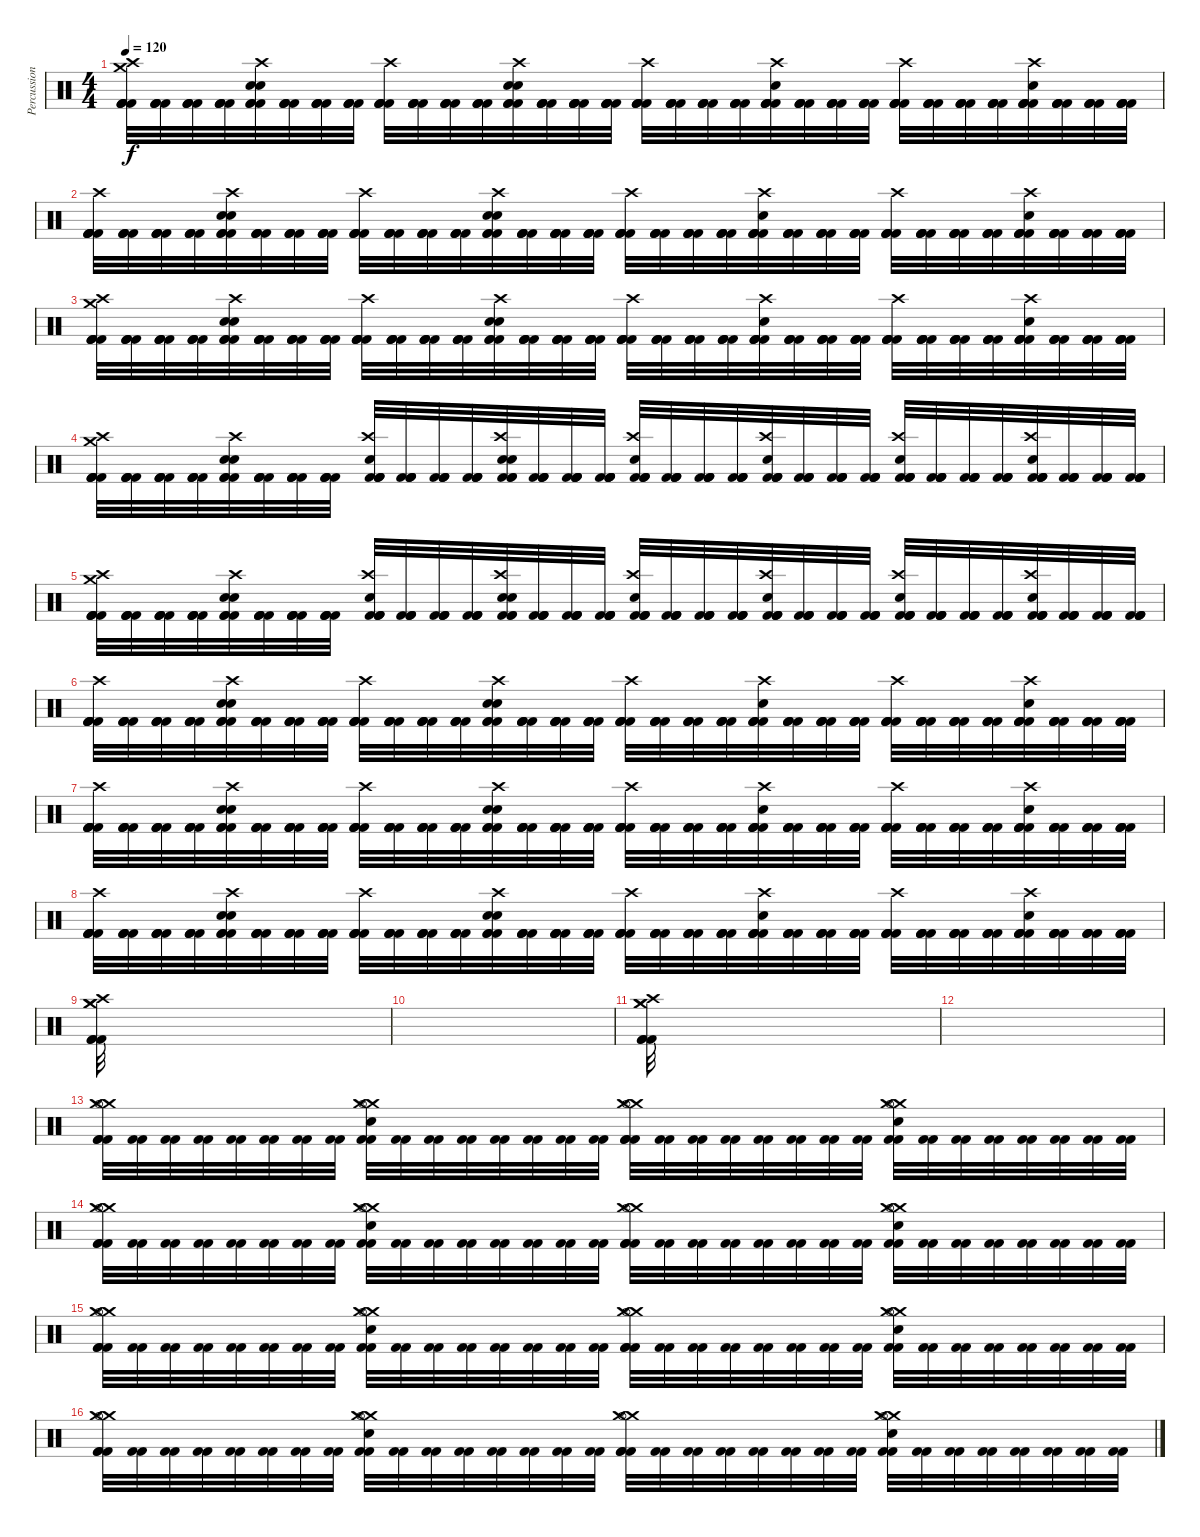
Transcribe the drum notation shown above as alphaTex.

\track ("Percussion" "Percussion") {instrument percussion}
\staff {score}
\articulation defaults
\ts (4 4)
\tempo 120
\clef neutral
\ks c
("Crash medium (hit)" "Kick (hit) 2" "Crash high (hit)" "Kick (hit) 2" "Kick (hit) 2" "Kick (hit) 2").32{dy f} ("Kick (hit) 2" "Kick (hit) 2" "Kick (hit) 2" "Kick (hit) 2").32 ("Kick (hit) 2" "Kick (hit) 2" "Kick (hit) 2" "Kick (hit) 2").32 ("Kick (hit) 2" "Kick (hit) 2" "Kick (hit) 2" "Kick (hit) 2").32 ("Snare (hit) 2" "Electric Snare (hit)" "Crash high (hit)" "Kick (hit) 2" "Kick (hit) 2" "Kick (hit) 2").32 ("Kick (hit) 2" "Kick (hit) 2" "Kick (hit) 2" "Kick (hit) 2").32 ("Kick (hit) 2" "Kick (hit) 2" "Kick (hit) 2" "Kick (hit) 2").32 ("Kick (hit) 2" "Kick (hit) 2" "Kick (hit) 2" "Kick (hit) 2").32 ("Kick (hit) 2" "Crash high (hit)" "Kick (hit) 2" "Kick (hit) 2" "Kick (hit) 2").32 ("Kick (hit) 2" "Kick (hit) 2" "Kick (hit) 2" "Kick (hit) 2").32 ("Kick (hit) 2" "Kick (hit) 2" "Kick (hit) 2" "Kick (hit) 2").32 ("Kick (hit) 2" "Kick (hit) 2" "Kick (hit) 2" "Kick (hit) 2").32 ("Snare (hit) 2" "Electric Snare (hit)" "Crash high (hit)" "Kick (hit) 2" "Kick (hit) 2" "Kick (hit) 2").32 ("Kick (hit) 2" "Kick (hit) 2" "Kick (hit) 2" "Kick (hit) 2").32 ("Kick (hit) 2" "Kick (hit) 2" "Kick (hit) 2" "Kick (hit) 2" "Kick (hit) 2").32 ("Kick (hit) 2" "Kick (hit) 2" "Kick (hit) 2" "Kick (hit) 2" "Kick (hit) 2").32 ("Kick (hit) 2" "Crash high (hit)" "Kick (hit) 2" "Kick (hit) 2" "Kick (hit) 2").32 ("Kick (hit) 2" "Kick (hit) 2" "Kick (hit) 2" "Kick (hit) 2").32 ("Kick (hit) 2" "Kick (hit) 2" "Kick (hit) 2" "Kick (hit) 2").32 ("Kick (hit) 2" "Kick (hit) 2" "Kick (hit) 2" "Kick (hit) 2").32 ("Kick (hit) 2" "Electric Snare (hit)" "Crash high (hit)" "Kick (hit) 2" "Kick (hit) 2" "Kick (hit) 2").32 ("Kick (hit) 2" "Kick (hit) 2" "Kick (hit) 2" "Kick (hit) 2").32 ("Kick (hit) 2" "Kick (hit) 2" "Kick (hit) 2" "Kick (hit) 2").32 ("Kick (hit) 2" "Kick (hit) 2" "Kick (hit) 2" "Kick (hit) 2").32 ("Kick (hit) 2" "Crash high (hit)" "Kick (hit) 2" "Kick (hit) 2" "Kick (hit) 2").32 ("Kick (hit) 2" "Kick (hit) 2" "Kick (hit) 2" "Kick (hit) 2").32 ("Kick (hit) 2" "Kick (hit) 2" "Kick (hit) 2" "Kick (hit) 2").32 ("Kick (hit) 2" "Kick (hit) 2" "Kick (hit) 2" "Kick (hit) 2").32 ("Kick (hit) 2" "Electric Snare (hit)" "Crash high (hit)" "Kick (hit) 2" "Kick (hit) 2" "Kick (hit) 2").32 ("Kick (hit) 2" "Kick (hit) 2" "Kick (hit) 2" "Kick (hit) 2").32 ("Kick (hit) 2" "Kick (hit) 2" "Kick (hit) 2" "Kick (hit) 2").32 ("Kick (hit) 2" "Kick (hit) 2" "Kick (hit) 2" "Kick (hit) 2").32 |
("Kick (hit) 2" "Kick (hit) 2" "Crash high (hit)" "Kick (hit) 2" "Kick (hit) 2" "Kick (hit) 2").32 ("Kick (hit) 2" "Kick (hit) 2" "Kick (hit) 2" "Kick (hit) 2").32 ("Kick (hit) 2" "Kick (hit) 2" "Kick (hit) 2" "Kick (hit) 2").32 ("Kick (hit) 2" "Kick (hit) 2" "Kick (hit) 2" "Kick (hit) 2").32 ("Snare (hit) 2" "Electric Snare (hit)" "Crash high (hit)" "Kick (hit) 2" "Kick (hit) 2" "Kick (hit) 2").32 ("Kick (hit) 2" "Kick (hit) 2" "Kick (hit) 2" "Kick (hit) 2").32 ("Kick (hit) 2" "Kick (hit) 2" "Kick (hit) 2" "Kick (hit) 2").32 ("Kick (hit) 2" "Kick (hit) 2" "Kick (hit) 2" "Kick (hit) 2").32 ("Kick (hit) 2" "Crash high (hit)" "Kick (hit) 2" "Kick (hit) 2" "Kick (hit) 2").32 ("Kick (hit) 2" "Kick (hit) 2" "Kick (hit) 2" "Kick (hit) 2").32 ("Kick (hit) 2" "Kick (hit) 2" "Kick (hit) 2" "Kick (hit) 2").32 ("Kick (hit) 2" "Kick (hit) 2" "Kick (hit) 2" "Kick (hit) 2").32 ("Snare (hit) 2" "Electric Snare (hit)" "Crash high (hit)" "Kick (hit) 2" "Kick (hit) 2" "Kick (hit) 2").32 ("Kick (hit) 2" "Kick (hit) 2" "Kick (hit) 2" "Kick (hit) 2").32 ("Kick (hit) 2" "Kick (hit) 2" "Kick (hit) 2" "Kick (hit) 2" "Kick (hit) 2").32 ("Kick (hit) 2" "Kick (hit) 2" "Kick (hit) 2" "Kick (hit) 2" "Kick (hit) 2").32 ("Kick (hit) 2" "Crash high (hit)" "Kick (hit) 2" "Kick (hit) 2" "Kick (hit) 2").32 ("Kick (hit) 2" "Kick (hit) 2" "Kick (hit) 2" "Kick (hit) 2").32 ("Kick (hit) 2" "Kick (hit) 2" "Kick (hit) 2" "Kick (hit) 2").32 ("Kick (hit) 2" "Kick (hit) 2" "Kick (hit) 2" "Kick (hit) 2").32 ("Kick (hit) 2" "Electric Snare (hit)" "Crash high (hit)" "Kick (hit) 2" "Kick (hit) 2" "Kick (hit) 2").32 ("Kick (hit) 2" "Kick (hit) 2" "Kick (hit) 2" "Kick (hit) 2").32 ("Kick (hit) 2" "Kick (hit) 2" "Kick (hit) 2" "Kick (hit) 2").32 ("Kick (hit) 2" "Kick (hit) 2" "Kick (hit) 2" "Kick (hit) 2").32 ("Kick (hit) 2" "Crash high (hit)" "Kick (hit) 2" "Kick (hit) 2" "Kick (hit) 2").32 ("Kick (hit) 2" "Kick (hit) 2" "Kick (hit) 2" "Kick (hit) 2").32 ("Kick (hit) 2" "Kick (hit) 2" "Kick (hit) 2" "Kick (hit) 2").32 ("Kick (hit) 2" "Kick (hit) 2" "Kick (hit) 2" "Kick (hit) 2").32 ("Kick (hit) 2" "Electric Snare (hit)" "Crash high (hit)" "Kick (hit) 2" "Kick (hit) 2" "Kick (hit) 2").32 ("Kick (hit) 2" "Kick (hit) 2" "Kick (hit) 2" "Kick (hit) 2").32 ("Kick (hit) 2" "Kick (hit) 2" "Kick (hit) 2" "Kick (hit) 2").32 ("Kick (hit) 2" "Kick (hit) 2" "Kick (hit) 2" "Kick (hit) 2").32 |
("Crash medium (hit)" "Kick (hit) 2" "Crash high (hit)" "Kick (hit) 2" "Kick (hit) 2" "Kick (hit) 2").32 ("Kick (hit) 2" "Kick (hit) 2" "Kick (hit) 2" "Kick (hit) 2").32 ("Kick (hit) 2" "Kick (hit) 2" "Kick (hit) 2" "Kick (hit) 2").32 ("Kick (hit) 2" "Kick (hit) 2" "Kick (hit) 2" "Kick (hit) 2").32 ("Snare (hit) 2" "Electric Snare (hit)" "Crash high (hit)" "Kick (hit) 2" "Kick (hit) 2" "Kick (hit) 2").32 ("Kick (hit) 2" "Kick (hit) 2" "Kick (hit) 2" "Kick (hit) 2").32 ("Kick (hit) 2" "Kick (hit) 2" "Kick (hit) 2" "Kick (hit) 2").32 ("Kick (hit) 2" "Kick (hit) 2" "Kick (hit) 2" "Kick (hit) 2").32 ("Kick (hit) 2" "Crash high (hit)" "Kick (hit) 2" "Kick (hit) 2" "Kick (hit) 2").32 ("Kick (hit) 2" "Kick (hit) 2" "Kick (hit) 2" "Kick (hit) 2").32 ("Kick (hit) 2" "Kick (hit) 2" "Kick (hit) 2" "Kick (hit) 2").32 ("Kick (hit) 2" "Kick (hit) 2" "Kick (hit) 2" "Kick (hit) 2").32 ("Snare (hit) 2" "Electric Snare (hit)" "Crash high (hit)" "Kick (hit) 2" "Kick (hit) 2" "Kick (hit) 2").32 ("Kick (hit) 2" "Kick (hit) 2" "Kick (hit) 2" "Kick (hit) 2").32 ("Kick (hit) 2" "Kick (hit) 2" "Kick (hit) 2" "Kick (hit) 2" "Kick (hit) 2").32 ("Kick (hit) 2" "Kick (hit) 2" "Kick (hit) 2" "Kick (hit) 2" "Kick (hit) 2").32 ("Kick (hit) 2" "Crash high (hit)" "Kick (hit) 2" "Kick (hit) 2" "Kick (hit) 2").32 ("Kick (hit) 2" "Kick (hit) 2" "Kick (hit) 2" "Kick (hit) 2").32 ("Kick (hit) 2" "Kick (hit) 2" "Kick (hit) 2" "Kick (hit) 2").32 ("Kick (hit) 2" "Kick (hit) 2" "Kick (hit) 2" "Kick (hit) 2").32 ("Kick (hit) 2" "Electric Snare (hit)" "Crash high (hit)" "Kick (hit) 2" "Kick (hit) 2" "Kick (hit) 2").32 ("Kick (hit) 2" "Kick (hit) 2" "Kick (hit) 2" "Kick (hit) 2").32 ("Kick (hit) 2" "Kick (hit) 2" "Kick (hit) 2" "Kick (hit) 2").32 ("Kick (hit) 2" "Kick (hit) 2" "Kick (hit) 2" "Kick (hit) 2").32 ("Kick (hit) 2" "Crash high (hit)" "Kick (hit) 2" "Kick (hit) 2" "Kick (hit) 2").32 ("Kick (hit) 2" "Kick (hit) 2" "Kick (hit) 2" "Kick (hit) 2").32 ("Kick (hit) 2" "Kick (hit) 2" "Kick (hit) 2" "Kick (hit) 2").32 ("Kick (hit) 2" "Kick (hit) 2" "Kick (hit) 2" "Kick (hit) 2").32 ("Kick (hit) 2" "Electric Snare (hit)" "Crash high (hit)" "Kick (hit) 2" "Kick (hit) 2" "Kick (hit) 2").32 ("Kick (hit) 2" "Kick (hit) 2" "Kick (hit) 2" "Kick (hit) 2").32 ("Kick (hit) 2" "Kick (hit) 2" "Kick (hit) 2" "Kick (hit) 2").32 ("Kick (hit) 2" "Kick (hit) 2" "Kick (hit) 2" "Kick (hit) 2").32 |
("Crash medium (hit)" "Kick (hit) 2" "Crash high (hit)" "Kick (hit) 2" "Kick (hit) 2" "Kick (hit) 2").32 ("Kick (hit) 2" "Kick (hit) 2" "Kick (hit) 2" "Kick (hit) 2").32 ("Kick (hit) 2" "Kick (hit) 2" "Kick (hit) 2" "Kick (hit) 2").32 ("Kick (hit) 2" "Kick (hit) 2" "Kick (hit) 2" "Kick (hit) 2").32 ("Snare (hit) 2" "Electric Snare (hit)" "Crash high (hit)" "Kick (hit) 2" "Kick (hit) 2" "Kick (hit) 2").32 ("Kick (hit) 2" "Kick (hit) 2" "Kick (hit) 2" "Kick (hit) 2").32 ("Kick (hit) 2" "Kick (hit) 2" "Kick (hit) 2" "Kick (hit) 2").32 ("Kick (hit) 2" "Kick (hit) 2" "Kick (hit) 2" "Kick (hit) 2").32 ("Kick (hit) 2" "Electric Snare (hit)" "Crash high (hit)" "Kick (hit) 2" "Kick (hit) 2" "Kick (hit) 2").32 ("Kick (hit) 2" "Kick (hit) 2" "Kick (hit) 2" "Kick (hit) 2").32 ("Kick (hit) 2" "Kick (hit) 2" "Kick (hit) 2" "Kick (hit) 2").32 ("Kick (hit) 2" "Kick (hit) 2" "Kick (hit) 2" "Kick (hit) 2").32 ("Snare (hit) 2" "Electric Snare (hit)" "Crash high (hit)" "Kick (hit) 2" "Kick (hit) 2" "Kick (hit) 2").32 ("Kick (hit) 2" "Kick (hit) 2" "Kick (hit) 2" "Kick (hit) 2").32 ("Kick (hit) 2" "Kick (hit) 2" "Kick (hit) 2" "Kick (hit) 2" "Kick (hit) 2").32 ("Kick (hit) 2" "Kick (hit) 2" "Kick (hit) 2" "Kick (hit) 2" "Kick (hit) 2").32 ("Kick (hit) 2" "Electric Snare (hit)" "Crash high (hit)" "Kick (hit) 2" "Kick (hit) 2" "Kick (hit) 2").32 ("Kick (hit) 2" "Kick (hit) 2" "Kick (hit) 2" "Kick (hit) 2").32 ("Kick (hit) 2" "Kick (hit) 2" "Kick (hit) 2" "Kick (hit) 2").32 ("Kick (hit) 2" "Kick (hit) 2" "Kick (hit) 2" "Kick (hit) 2").32 ("Kick (hit) 2" "Electric Snare (hit)" "Crash high (hit)" "Kick (hit) 2" "Kick (hit) 2" "Kick (hit) 2").32 ("Kick (hit) 2" "Kick (hit) 2" "Kick (hit) 2" "Kick (hit) 2").32 ("Kick (hit) 2" "Kick (hit) 2" "Kick (hit) 2" "Kick (hit) 2").32 ("Kick (hit) 2" "Kick (hit) 2" "Kick (hit) 2" "Kick (hit) 2").32 ("Kick (hit) 2" "Electric Snare (hit)" "Crash high (hit)" "Kick (hit) 2" "Kick (hit) 2" "Kick (hit) 2").32 ("Kick (hit) 2" "Kick (hit) 2" "Kick (hit) 2" "Kick (hit) 2").32 ("Kick (hit) 2" "Kick (hit) 2" "Kick (hit) 2" "Kick (hit) 2").32 ("Kick (hit) 2" "Kick (hit) 2" "Kick (hit) 2" "Kick (hit) 2").32 ("Kick (hit) 2" "Electric Snare (hit)" "Crash high (hit)" "Kick (hit) 2" "Kick (hit) 2" "Kick (hit) 2").32 ("Kick (hit) 2" "Kick (hit) 2" "Kick (hit) 2" "Kick (hit) 2").32 ("Kick (hit) 2" "Kick (hit) 2" "Kick (hit) 2" "Kick (hit) 2").32 ("Kick (hit) 2" "Kick (hit) 2" "Kick (hit) 2" "Kick (hit) 2").32 |
("Crash medium (hit)" "Kick (hit) 2" "Crash high (hit)" "Kick (hit) 2" "Kick (hit) 2" "Kick (hit) 2").32 ("Kick (hit) 2" "Kick (hit) 2" "Kick (hit) 2" "Kick (hit) 2").32 ("Kick (hit) 2" "Kick (hit) 2" "Kick (hit) 2" "Kick (hit) 2").32 ("Kick (hit) 2" "Kick (hit) 2" "Kick (hit) 2" "Kick (hit) 2").32 ("Snare (hit) 2" "Electric Snare (hit)" "Crash high (hit)" "Kick (hit) 2" "Kick (hit) 2" "Kick (hit) 2").32 ("Kick (hit) 2" "Kick (hit) 2" "Kick (hit) 2" "Kick (hit) 2").32 ("Kick (hit) 2" "Kick (hit) 2" "Kick (hit) 2" "Kick (hit) 2").32 ("Kick (hit) 2" "Kick (hit) 2" "Kick (hit) 2" "Kick (hit) 2").32 ("Kick (hit) 2" "Electric Snare (hit)" "Crash high (hit)" "Kick (hit) 2" "Kick (hit) 2" "Kick (hit) 2").32 ("Kick (hit) 2" "Kick (hit) 2" "Kick (hit) 2" "Kick (hit) 2").32 ("Kick (hit) 2" "Kick (hit) 2" "Kick (hit) 2" "Kick (hit) 2").32 ("Kick (hit) 2" "Kick (hit) 2" "Kick (hit) 2" "Kick (hit) 2").32 ("Snare (hit) 2" "Electric Snare (hit)" "Crash high (hit)" "Kick (hit) 2" "Kick (hit) 2" "Kick (hit) 2").32 ("Kick (hit) 2" "Kick (hit) 2" "Kick (hit) 2" "Kick (hit) 2").32 ("Kick (hit) 2" "Kick (hit) 2" "Kick (hit) 2" "Kick (hit) 2" "Kick (hit) 2").32 ("Kick (hit) 2" "Kick (hit) 2" "Kick (hit) 2" "Kick (hit) 2" "Kick (hit) 2").32 ("Kick (hit) 2" "Electric Snare (hit)" "Crash high (hit)" "Kick (hit) 2" "Kick (hit) 2" "Kick (hit) 2").32 ("Kick (hit) 2" "Kick (hit) 2" "Kick (hit) 2" "Kick (hit) 2").32 ("Kick (hit) 2" "Kick (hit) 2" "Kick (hit) 2" "Kick (hit) 2").32 ("Kick (hit) 2" "Kick (hit) 2" "Kick (hit) 2" "Kick (hit) 2").32 ("Kick (hit) 2" "Electric Snare (hit)" "Crash high (hit)" "Kick (hit) 2" "Kick (hit) 2" "Kick (hit) 2").32 ("Kick (hit) 2" "Kick (hit) 2" "Kick (hit) 2" "Kick (hit) 2").32 ("Kick (hit) 2" "Kick (hit) 2" "Kick (hit) 2" "Kick (hit) 2").32 ("Kick (hit) 2" "Kick (hit) 2" "Kick (hit) 2" "Kick (hit) 2").32 ("Kick (hit) 2" "Electric Snare (hit)" "Crash high (hit)" "Kick (hit) 2" "Kick (hit) 2" "Kick (hit) 2").32 ("Kick (hit) 2" "Kick (hit) 2" "Kick (hit) 2" "Kick (hit) 2").32 ("Kick (hit) 2" "Kick (hit) 2" "Kick (hit) 2" "Kick (hit) 2").32 ("Kick (hit) 2" "Kick (hit) 2" "Kick (hit) 2" "Kick (hit) 2").32 ("Kick (hit) 2" "Electric Snare (hit)" "Crash high (hit)" "Kick (hit) 2" "Kick (hit) 2" "Kick (hit) 2").32 ("Kick (hit) 2" "Kick (hit) 2" "Kick (hit) 2" "Kick (hit) 2").32 ("Kick (hit) 2" "Kick (hit) 2" "Kick (hit) 2" "Kick (hit) 2").32 ("Kick (hit) 2" "Kick (hit) 2" "Kick (hit) 2" "Kick (hit) 2").32 |
("Kick (hit) 2" "Kick (hit) 2" "Crash high (hit)" "Kick (hit) 2" "Kick (hit) 2" "Kick (hit) 2").32 ("Kick (hit) 2" "Kick (hit) 2" "Kick (hit) 2" "Kick (hit) 2").32 ("Kick (hit) 2" "Kick (hit) 2" "Kick (hit) 2" "Kick (hit) 2").32 ("Kick (hit) 2" "Kick (hit) 2" "Kick (hit) 2" "Kick (hit) 2").32 ("Snare (hit) 2" "Electric Snare (hit)" "Crash high (hit)" "Kick (hit) 2" "Kick (hit) 2" "Kick (hit) 2").32 ("Kick (hit) 2" "Kick (hit) 2" "Kick (hit) 2" "Kick (hit) 2").32 ("Kick (hit) 2" "Kick (hit) 2" "Kick (hit) 2" "Kick (hit) 2").32 ("Kick (hit) 2" "Kick (hit) 2" "Kick (hit) 2" "Kick (hit) 2").32 ("Kick (hit) 2" "Crash high (hit)" "Kick (hit) 2" "Kick (hit) 2" "Kick (hit) 2").32 ("Kick (hit) 2" "Kick (hit) 2" "Kick (hit) 2" "Kick (hit) 2").32 ("Kick (hit) 2" "Kick (hit) 2" "Kick (hit) 2" "Kick (hit) 2").32 ("Kick (hit) 2" "Kick (hit) 2" "Kick (hit) 2" "Kick (hit) 2").32 ("Snare (hit) 2" "Electric Snare (hit)" "Crash high (hit)" "Kick (hit) 2" "Kick (hit) 2" "Kick (hit) 2").32 ("Kick (hit) 2" "Kick (hit) 2" "Kick (hit) 2" "Kick (hit) 2").32 ("Kick (hit) 2" "Kick (hit) 2" "Kick (hit) 2" "Kick (hit) 2" "Kick (hit) 2").32 ("Kick (hit) 2" "Kick (hit) 2" "Kick (hit) 2" "Kick (hit) 2" "Kick (hit) 2").32 ("Kick (hit) 2" "Crash high (hit)" "Kick (hit) 2" "Kick (hit) 2" "Kick (hit) 2").32 ("Kick (hit) 2" "Kick (hit) 2" "Kick (hit) 2" "Kick (hit) 2").32 ("Kick (hit) 2" "Kick (hit) 2" "Kick (hit) 2" "Kick (hit) 2").32 ("Kick (hit) 2" "Kick (hit) 2" "Kick (hit) 2" "Kick (hit) 2").32 ("Kick (hit) 2" "Electric Snare (hit)" "Crash high (hit)" "Kick (hit) 2" "Kick (hit) 2" "Kick (hit) 2").32 ("Kick (hit) 2" "Kick (hit) 2" "Kick (hit) 2" "Kick (hit) 2").32 ("Kick (hit) 2" "Kick (hit) 2" "Kick (hit) 2" "Kick (hit) 2").32 ("Kick (hit) 2" "Kick (hit) 2" "Kick (hit) 2" "Kick (hit) 2").32 ("Kick (hit) 2" "Crash high (hit)" "Kick (hit) 2" "Kick (hit) 2" "Kick (hit) 2").32 ("Kick (hit) 2" "Kick (hit) 2" "Kick (hit) 2" "Kick (hit) 2").32 ("Kick (hit) 2" "Kick (hit) 2" "Kick (hit) 2" "Kick (hit) 2").32 ("Kick (hit) 2" "Kick (hit) 2" "Kick (hit) 2" "Kick (hit) 2").32 ("Kick (hit) 2" "Electric Snare (hit)" "Crash high (hit)" "Kick (hit) 2" "Kick (hit) 2" "Kick (hit) 2").32 ("Kick (hit) 2" "Kick (hit) 2" "Kick (hit) 2" "Kick (hit) 2").32 ("Kick (hit) 2" "Kick (hit) 2" "Kick (hit) 2" "Kick (hit) 2").32 ("Kick (hit) 2" "Kick (hit) 2" "Kick (hit) 2" "Kick (hit) 2").32 |
("Kick (hit) 2" "Kick (hit) 2" "Crash high (hit)" "Kick (hit) 2" "Kick (hit) 2" "Kick (hit) 2").32 ("Kick (hit) 2" "Kick (hit) 2" "Kick (hit) 2" "Kick (hit) 2").32 ("Kick (hit) 2" "Kick (hit) 2" "Kick (hit) 2" "Kick (hit) 2").32 ("Kick (hit) 2" "Kick (hit) 2" "Kick (hit) 2" "Kick (hit) 2").32 ("Snare (hit) 2" "Electric Snare (hit)" "Crash high (hit)" "Kick (hit) 2" "Kick (hit) 2" "Kick (hit) 2").32 ("Kick (hit) 2" "Kick (hit) 2" "Kick (hit) 2" "Kick (hit) 2").32 ("Kick (hit) 2" "Kick (hit) 2" "Kick (hit) 2" "Kick (hit) 2").32 ("Kick (hit) 2" "Kick (hit) 2" "Kick (hit) 2" "Kick (hit) 2").32 ("Kick (hit) 2" "Crash high (hit)" "Kick (hit) 2" "Kick (hit) 2" "Kick (hit) 2").32 ("Kick (hit) 2" "Kick (hit) 2" "Kick (hit) 2" "Kick (hit) 2").32 ("Kick (hit) 2" "Kick (hit) 2" "Kick (hit) 2" "Kick (hit) 2").32 ("Kick (hit) 2" "Kick (hit) 2" "Kick (hit) 2" "Kick (hit) 2").32 ("Snare (hit) 2" "Electric Snare (hit)" "Crash high (hit)" "Kick (hit) 2" "Kick (hit) 2" "Kick (hit) 2").32 ("Kick (hit) 2" "Kick (hit) 2" "Kick (hit) 2" "Kick (hit) 2").32 ("Kick (hit) 2" "Kick (hit) 2" "Kick (hit) 2" "Kick (hit) 2" "Kick (hit) 2").32 ("Kick (hit) 2" "Kick (hit) 2" "Kick (hit) 2" "Kick (hit) 2" "Kick (hit) 2").32 ("Kick (hit) 2" "Crash high (hit)" "Kick (hit) 2" "Kick (hit) 2" "Kick (hit) 2").32 ("Kick (hit) 2" "Kick (hit) 2" "Kick (hit) 2" "Kick (hit) 2").32 ("Kick (hit) 2" "Kick (hit) 2" "Kick (hit) 2" "Kick (hit) 2").32 ("Kick (hit) 2" "Kick (hit) 2" "Kick (hit) 2" "Kick (hit) 2").32 ("Kick (hit) 2" "Electric Snare (hit)" "Crash high (hit)" "Kick (hit) 2" "Kick (hit) 2" "Kick (hit) 2").32 ("Kick (hit) 2" "Kick (hit) 2" "Kick (hit) 2" "Kick (hit) 2").32 ("Kick (hit) 2" "Kick (hit) 2" "Kick (hit) 2" "Kick (hit) 2").32 ("Kick (hit) 2" "Kick (hit) 2" "Kick (hit) 2" "Kick (hit) 2").32 ("Kick (hit) 2" "Crash high (hit)" "Kick (hit) 2" "Kick (hit) 2" "Kick (hit) 2").32 ("Kick (hit) 2" "Kick (hit) 2" "Kick (hit) 2" "Kick (hit) 2").32 ("Kick (hit) 2" "Kick (hit) 2" "Kick (hit) 2" "Kick (hit) 2").32 ("Kick (hit) 2" "Kick (hit) 2" "Kick (hit) 2" "Kick (hit) 2").32 ("Kick (hit) 2" "Electric Snare (hit)" "Crash high (hit)" "Kick (hit) 2" "Kick (hit) 2" "Kick (hit) 2").32 ("Kick (hit) 2" "Kick (hit) 2" "Kick (hit) 2" "Kick (hit) 2").32 ("Kick (hit) 2" "Kick (hit) 2" "Kick (hit) 2" "Kick (hit) 2").32 ("Kick (hit) 2" "Kick (hit) 2" "Kick (hit) 2" "Kick (hit) 2").32 |
("Kick (hit) 2" "Kick (hit) 2" "Crash high (hit)" "Kick (hit) 2" "Kick (hit) 2" "Kick (hit) 2").32 ("Kick (hit) 2" "Kick (hit) 2" "Kick (hit) 2" "Kick (hit) 2").32 ("Kick (hit) 2" "Kick (hit) 2" "Kick (hit) 2" "Kick (hit) 2").32 ("Kick (hit) 2" "Kick (hit) 2" "Kick (hit) 2" "Kick (hit) 2").32 ("Snare (hit) 2" "Electric Snare (hit)" "Crash high (hit)" "Kick (hit) 2" "Kick (hit) 2" "Kick (hit) 2").32 ("Kick (hit) 2" "Kick (hit) 2" "Kick (hit) 2" "Kick (hit) 2").32 ("Kick (hit) 2" "Kick (hit) 2" "Kick (hit) 2" "Kick (hit) 2").32 ("Kick (hit) 2" "Kick (hit) 2" "Kick (hit) 2" "Kick (hit) 2").32 ("Kick (hit) 2" "Crash high (hit)" "Kick (hit) 2" "Kick (hit) 2" "Kick (hit) 2").32 ("Kick (hit) 2" "Kick (hit) 2" "Kick (hit) 2" "Kick (hit) 2").32 ("Kick (hit) 2" "Kick (hit) 2" "Kick (hit) 2" "Kick (hit) 2").32 ("Kick (hit) 2" "Kick (hit) 2" "Kick (hit) 2" "Kick (hit) 2").32 ("Snare (hit) 2" "Electric Snare (hit)" "Crash high (hit)" "Kick (hit) 2" "Kick (hit) 2" "Kick (hit) 2").32 ("Kick (hit) 2" "Kick (hit) 2" "Kick (hit) 2" "Kick (hit) 2").32 ("Kick (hit) 2" "Kick (hit) 2" "Kick (hit) 2" "Kick (hit) 2" "Kick (hit) 2").32 ("Kick (hit) 2" "Kick (hit) 2" "Kick (hit) 2" "Kick (hit) 2" "Kick (hit) 2").32 ("Kick (hit) 2" "Crash high (hit)" "Kick (hit) 2" "Kick (hit) 2" "Kick (hit) 2").32 ("Kick (hit) 2" "Kick (hit) 2" "Kick (hit) 2" "Kick (hit) 2").32 ("Kick (hit) 2" "Kick (hit) 2" "Kick (hit) 2" "Kick (hit) 2").32 ("Kick (hit) 2" "Kick (hit) 2" "Kick (hit) 2" "Kick (hit) 2").32 ("Kick (hit) 2" "Electric Snare (hit)" "Crash high (hit)" "Kick (hit) 2" "Kick (hit) 2" "Kick (hit) 2").32 ("Kick (hit) 2" "Kick (hit) 2" "Kick (hit) 2" "Kick (hit) 2").32 ("Kick (hit) 2" "Kick (hit) 2" "Kick (hit) 2" "Kick (hit) 2").32 ("Kick (hit) 2" "Kick (hit) 2" "Kick (hit) 2" "Kick (hit) 2").32 ("Kick (hit) 2" "Crash high (hit)" "Kick (hit) 2" "Kick (hit) 2" "Kick (hit) 2").32 ("Kick (hit) 2" "Kick (hit) 2" "Kick (hit) 2" "Kick (hit) 2").32 ("Kick (hit) 2" "Kick (hit) 2" "Kick (hit) 2" "Kick (hit) 2").32 ("Kick (hit) 2" "Kick (hit) 2" "Kick (hit) 2" "Kick (hit) 2").32 ("Kick (hit) 2" "Electric Snare (hit)" "Crash high (hit)" "Kick (hit) 2" "Kick (hit) 2" "Kick (hit) 2").32 ("Kick (hit) 2" "Kick (hit) 2" "Kick (hit) 2" "Kick (hit) 2").32 ("Kick (hit) 2" "Kick (hit) 2" "Kick (hit) 2" "Kick (hit) 2").32 ("Kick (hit) 2" "Kick (hit) 2" "Kick (hit) 2" "Kick (hit) 2").32 |
("Crash medium (hit)" "Crash medium (hit)" "Crash high (hit)" "Kick (hit) 2" "Kick (hit) 2" "Kick (hit) 2").32 |
|
("Crash medium (hit)" "Crash medium (hit)" "Crash high (hit)" "Kick (hit) 2" "Kick (hit) 2" "Kick (hit) 2").32 |
|
("Crash medium (hit)" "Hi-Hat (open)" "Crash medium (hit)" "Kick (hit) 2" "Kick (hit) 2" "Kick (hit) 2").32 ("Kick (hit) 2" "Kick (hit) 2").32 ("Kick (hit) 2" "Kick (hit) 2").32 ("Kick (hit) 2" "Kick (hit) 2").32 ("Kick (hit) 2" "Kick (hit) 2").32 ("Kick (hit) 2" "Kick (hit) 2").32 ("Kick (hit) 2" "Kick (hit) 2").32 ("Kick (hit) 2" "Kick (hit) 2").32 ("Crash medium (hit)" "Hi-Hat (open)" "Electric Snare (hit)" "Crash medium (hit)" "Kick (hit) 2" "Kick (hit) 2").32 ("Kick (hit) 2" "Kick (hit) 2").32 ("Kick (hit) 2" "Kick (hit) 2").32 ("Kick (hit) 2" "Kick (hit) 2").32 ("Kick (hit) 2" "Kick (hit) 2").32 ("Kick (hit) 2" "Kick (hit) 2").32 ("Kick (hit) 2" "Kick (hit) 2").32 ("Kick (hit) 2" "Kick (hit) 2").32 ("Crash medium (hit)" "Hi-Hat (open)" "Crash medium (hit)" "Kick (hit) 2" "Kick (hit) 2" "Kick (hit) 2").32 ("Kick (hit) 2" "Kick (hit) 2").32 ("Kick (hit) 2" "Kick (hit) 2").32 ("Kick (hit) 2" "Kick (hit) 2").32 ("Kick (hit) 2" "Kick (hit) 2").32 ("Kick (hit) 2" "Kick (hit) 2").32 ("Kick (hit) 2" "Kick (hit) 2").32 ("Kick (hit) 2" "Kick (hit) 2").32 ("Crash medium (hit)" "Hi-Hat (open)" "Electric Snare (hit)" "Crash medium (hit)" "Kick (hit) 2" "Kick (hit) 2").32 ("Kick (hit) 2" "Kick (hit) 2").32 ("Kick (hit) 2" "Kick (hit) 2").32 ("Kick (hit) 2" "Kick (hit) 2").32 ("Kick (hit) 2" "Kick (hit) 2").32 ("Kick (hit) 2" "Kick (hit) 2").32 ("Kick (hit) 2" "Kick (hit) 2").32 ("Kick (hit) 2" "Kick (hit) 2").32 |
("Crash medium (hit)" "Hi-Hat (open)" "Crash medium (hit)" "Kick (hit) 2" "Kick (hit) 2" "Kick (hit) 2").32 ("Kick (hit) 2" "Kick (hit) 2").32 ("Kick (hit) 2" "Kick (hit) 2").32 ("Kick (hit) 2" "Kick (hit) 2").32 ("Kick (hit) 2" "Kick (hit) 2").32 ("Kick (hit) 2" "Kick (hit) 2").32 ("Kick (hit) 2" "Kick (hit) 2").32 ("Kick (hit) 2" "Kick (hit) 2").32 ("Crash medium (hit)" "Hi-Hat (open)" "Electric Snare (hit)" "Crash medium (hit)" "Kick (hit) 2" "Kick (hit) 2").32 ("Kick (hit) 2" "Kick (hit) 2").32 ("Kick (hit) 2" "Kick (hit) 2").32 ("Kick (hit) 2" "Kick (hit) 2").32 ("Kick (hit) 2" "Kick (hit) 2").32 ("Kick (hit) 2" "Kick (hit) 2").32 ("Kick (hit) 2" "Kick (hit) 2").32 ("Kick (hit) 2" "Kick (hit) 2").32 ("Crash medium (hit)" "Hi-Hat (open)" "Crash medium (hit)" "Kick (hit) 2" "Kick (hit) 2" "Kick (hit) 2").32 ("Kick (hit) 2" "Kick (hit) 2").32 ("Kick (hit) 2" "Kick (hit) 2").32 ("Kick (hit) 2" "Kick (hit) 2").32 ("Kick (hit) 2" "Kick (hit) 2").32 ("Kick (hit) 2" "Kick (hit) 2").32 ("Kick (hit) 2" "Kick (hit) 2").32 ("Kick (hit) 2" "Kick (hit) 2").32 ("Crash medium (hit)" "Hi-Hat (open)" "Electric Snare (hit)" "Crash medium (hit)" "Kick (hit) 2" "Kick (hit) 2").32 ("Kick (hit) 2" "Kick (hit) 2").32 ("Kick (hit) 2" "Kick (hit) 2").32 ("Kick (hit) 2" "Kick (hit) 2").32 ("Kick (hit) 2" "Kick (hit) 2").32 ("Kick (hit) 2" "Kick (hit) 2").32 ("Kick (hit) 2" "Kick (hit) 2").32 ("Kick (hit) 2" "Kick (hit) 2").32 |
("Crash medium (hit)" "Hi-Hat (open)" "Crash medium (hit)" "Kick (hit) 2" "Kick (hit) 2" "Kick (hit) 2").32 ("Kick (hit) 2" "Kick (hit) 2").32 ("Kick (hit) 2" "Kick (hit) 2").32 ("Kick (hit) 2" "Kick (hit) 2").32 ("Kick (hit) 2" "Kick (hit) 2").32 ("Kick (hit) 2" "Kick (hit) 2").32 ("Kick (hit) 2" "Kick (hit) 2").32 ("Kick (hit) 2" "Kick (hit) 2").32 ("Crash medium (hit)" "Hi-Hat (open)" "Electric Snare (hit)" "Crash medium (hit)" "Kick (hit) 2" "Kick (hit) 2").32 ("Kick (hit) 2" "Kick (hit) 2").32 ("Kick (hit) 2" "Kick (hit) 2").32 ("Kick (hit) 2" "Kick (hit) 2").32 ("Kick (hit) 2" "Kick (hit) 2").32 ("Kick (hit) 2" "Kick (hit) 2").32 ("Kick (hit) 2" "Kick (hit) 2").32 ("Kick (hit) 2" "Kick (hit) 2").32 ("Crash medium (hit)" "Hi-Hat (open)" "Crash medium (hit)" "Kick (hit) 2" "Kick (hit) 2" "Kick (hit) 2").32 ("Kick (hit) 2" "Kick (hit) 2").32 ("Kick (hit) 2" "Kick (hit) 2").32 ("Kick (hit) 2" "Kick (hit) 2").32 ("Kick (hit) 2" "Kick (hit) 2").32 ("Kick (hit) 2" "Kick (hit) 2").32 ("Kick (hit) 2" "Kick (hit) 2").32 ("Kick (hit) 2" "Kick (hit) 2").32 ("Crash medium (hit)" "Hi-Hat (open)" "Electric Snare (hit)" "Crash medium (hit)" "Kick (hit) 2" "Kick (hit) 2").32 ("Kick (hit) 2" "Kick (hit) 2").32 ("Kick (hit) 2" "Kick (hit) 2").32 ("Kick (hit) 2" "Kick (hit) 2").32 ("Kick (hit) 2" "Kick (hit) 2").32 ("Kick (hit) 2" "Kick (hit) 2").32 ("Kick (hit) 2" "Kick (hit) 2").32 ("Kick (hit) 2" "Kick (hit) 2").32 |
("Crash medium (hit)" "Hi-Hat (open)" "Crash medium (hit)" "Kick (hit) 2" "Kick (hit) 2" "Kick (hit) 2").32 ("Kick (hit) 2" "Kick (hit) 2").32 ("Kick (hit) 2" "Kick (hit) 2").32 ("Kick (hit) 2" "Kick (hit) 2").32 ("Kick (hit) 2" "Kick (hit) 2").32 ("Kick (hit) 2" "Kick (hit) 2").32 ("Kick (hit) 2" "Kick (hit) 2").32 ("Kick (hit) 2" "Kick (hit) 2").32 ("Crash medium (hit)" "Hi-Hat (open)" "Electric Snare (hit)" "Crash medium (hit)" "Kick (hit) 2" "Kick (hit) 2").32 ("Kick (hit) 2" "Kick (hit) 2").32 ("Kick (hit) 2" "Kick (hit) 2").32 ("Kick (hit) 2" "Kick (hit) 2").32 ("Kick (hit) 2" "Kick (hit) 2").32 ("Kick (hit) 2" "Kick (hit) 2").32 ("Kick (hit) 2" "Kick (hit) 2").32 ("Kick (hit) 2" "Kick (hit) 2").32 ("Crash medium (hit)" "Hi-Hat (open)" "Crash medium (hit)" "Kick (hit) 2" "Kick (hit) 2" "Kick (hit) 2").32 ("Kick (hit) 2" "Kick (hit) 2").32 ("Kick (hit) 2" "Kick (hit) 2").32 ("Kick (hit) 2" "Kick (hit) 2").32 ("Kick (hit) 2" "Kick (hit) 2").32 ("Kick (hit) 2" "Kick (hit) 2").32 ("Kick (hit) 2" "Kick (hit) 2").32 ("Kick (hit) 2" "Kick (hit) 2").32 ("Crash medium (hit)" "Hi-Hat (open)" "Electric Snare (hit)" "Crash medium (hit)" "Kick (hit) 2" "Kick (hit) 2").32 ("Kick (hit) 2" "Kick (hit) 2").32 ("Kick (hit) 2" "Kick (hit) 2").32 ("Kick (hit) 2" "Kick (hit) 2").32 ("Kick (hit) 2" "Kick (hit) 2").32 ("Kick (hit) 2" "Kick (hit) 2").32 ("Kick (hit) 2" "Kick (hit) 2").32 ("Kick (hit) 2" "Kick (hit) 2").32
